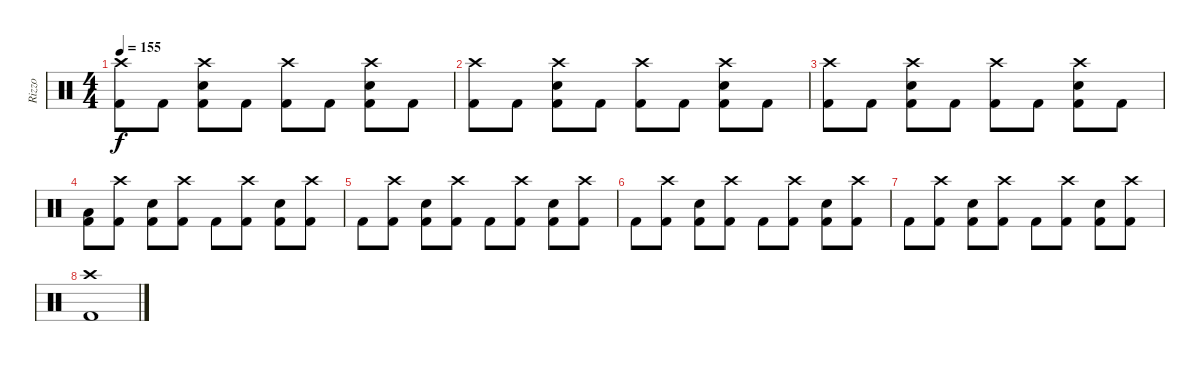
\track ("Rizzo" "Rizzo") {instrument percussion}
\staff {score}
\articulation defaults
\ts (4 4)
\tempo 155
\clef neutral
\ks c
("Crash high (hit)" "Kick (hit) 2").8{dy f} "Kick (hit) 2".8 ("Crash high (hit)" "Electric Snare (hit)" "Kick (hit) 2").8 "Kick (hit) 2".8 ("Crash high (hit)" "Kick (hit) 2").8 "Kick (hit) 2".8 ("Crash high (hit)" "Electric Snare (hit)" "Kick (hit) 2").8 "Kick (hit) 2".8 |
("Crash high (hit)" "Kick (hit) 2").8 "Kick (hit) 2".8 ("Crash high (hit)" "Electric Snare (hit)" "Kick (hit) 2").8 "Kick (hit) 2".8 ("Crash high (hit)" "Kick (hit) 2").8 "Kick (hit) 2".8 ("Crash high (hit)" "Electric Snare (hit)" "Kick (hit) 2").8 "Kick (hit) 2".8 |
("Crash high (hit)" "Kick (hit) 2").8 "Kick (hit) 2".8 ("Crash high (hit)" "Electric Snare (hit)" "Kick (hit) 2").8 "Kick (hit) 2".8 ("Crash high (hit)" "Kick (hit) 2").8 "Kick (hit) 2".8 ("Crash high (hit)" "Electric Snare (hit)" "Kick (hit) 2").8 "Kick (hit) 2".8 |
("Low Tom (hit)" "Kick (hit) 2").8 ("Crash high (hit)" "Kick (hit) 2").8 ("Electric Snare (hit)" "Kick (hit) 2").8 ("Crash high (hit)" "Kick (hit) 2").8 "Kick (hit) 2".8 ("Crash high (hit)" "Kick (hit) 2").8 ("Electric Snare (hit)" "Kick (hit) 2").8 ("Crash high (hit)" "Kick (hit) 2").8 |
"Kick (hit) 2".8 ("Crash high (hit)" "Kick (hit) 2").8 ("Electric Snare (hit)" "Kick (hit) 2").8 ("Crash high (hit)" "Kick (hit) 2").8 "Kick (hit) 2".8 ("Crash high (hit)" "Kick (hit) 2").8 ("Electric Snare (hit)" "Kick (hit) 2").8 ("Crash high (hit)" "Kick (hit) 2").8 |
"Kick (hit) 2".8 ("Crash high (hit)" "Kick (hit) 2").8 ("Electric Snare (hit)" "Kick (hit) 2").8 ("Crash high (hit)" "Kick (hit) 2").8 "Kick (hit) 2".8 ("Crash high (hit)" "Kick (hit) 2").8 ("Electric Snare (hit)" "Kick (hit) 2").8 ("Crash high (hit)" "Kick (hit) 2").8 |
"Kick (hit) 2".8 ("Crash high (hit)" "Kick (hit) 2").8 ("Electric Snare (hit)" "Kick (hit) 2").8 ("Crash high (hit)" "Kick (hit) 2").8 "Kick (hit) 2".8 ("Crash high (hit)" "Kick (hit) 2").8 ("Electric Snare (hit)" "Kick (hit) 2").8 ("Crash high (hit)" "Kick (hit) 2").8 |
("Crash high (hit)" "Kick (hit) 2").1
